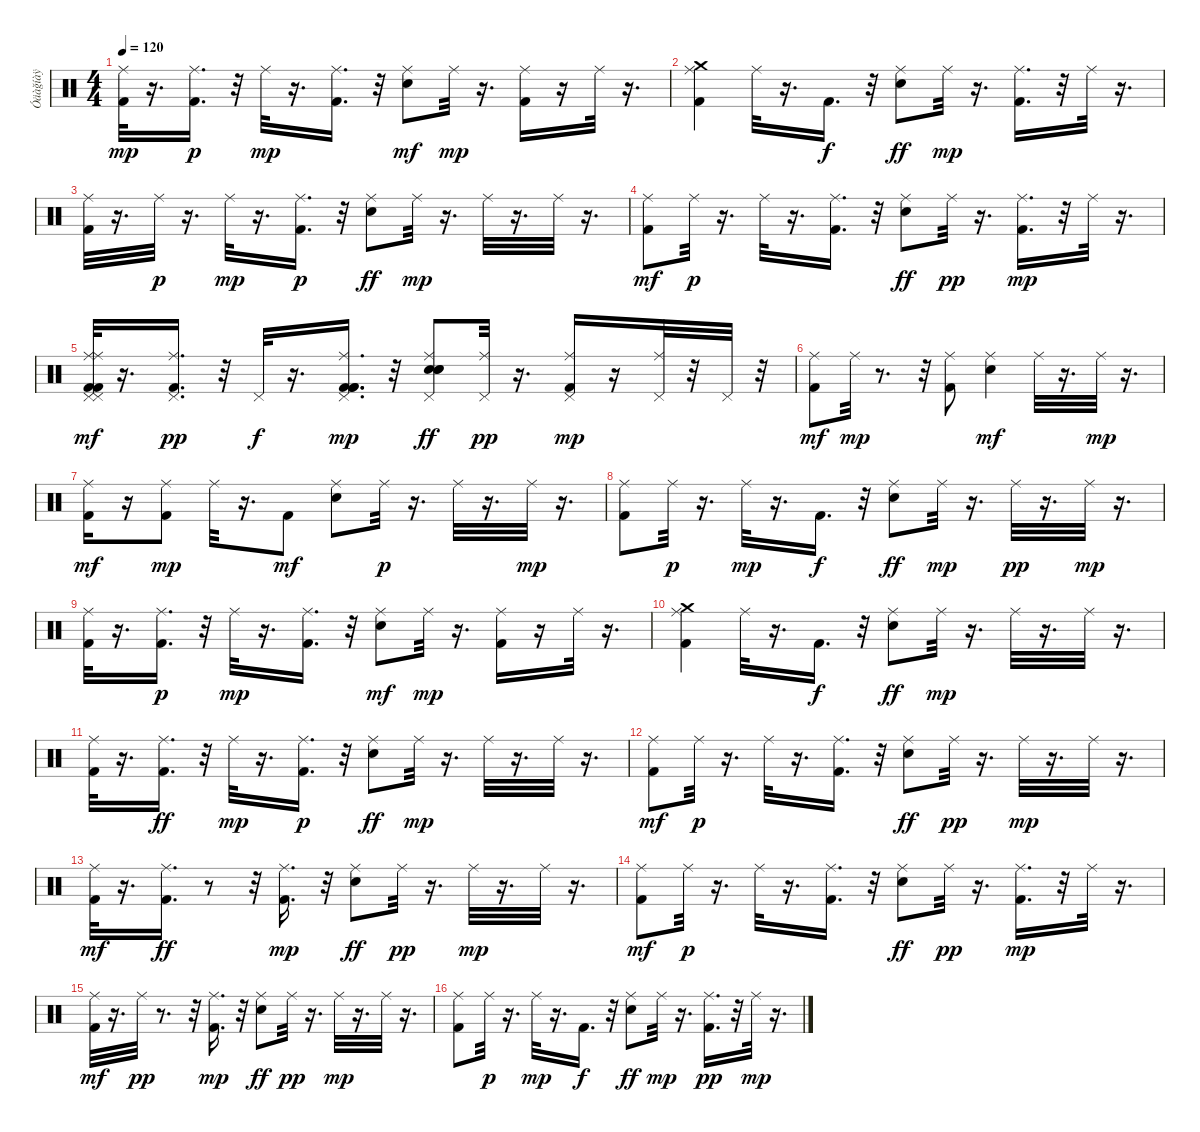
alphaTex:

\track ("Óäàğíàÿ" "Óäàğíàÿ") {instrument percussion}
\staff {score}
\articulation defaults
\ts (4 4)
\tempo 120
\clef neutral
\ks c
("Kick (hit) 2" "Ride (middle)").32{dy mp} r.16{d} ("Kick (hit) 2" "Ride (middle)").16{d dy p} r.32 "Ride (middle)".32{dy mp} r.16{d} ("Kick (hit) 2" "Ride (middle)").16{d} r.32 ("Snare (hit) 2" "Ride (middle)").8{dy mf} "Ride (middle)".32{dy mp} r.16{d} ("Kick (hit) 2" "Ride (middle)").16 r.16 "Ride (middle)".32 r.16{d} |
("Kick (hit) 2" "Crash medium (hit)" "Ride (middle)").4 "Ride (middle)".32 r.16{d} "Kick (hit) 2".16{d dy f} r.32 ("Ride (middle)" "Snare (hit) 2").8{dy ff} "Ride (middle)".32{dy mp} r.16{d} ("Kick (hit) 2" "Ride (middle)").16{d} r.32 "Ride (middle)".32 r.16{d} |
("Kick (hit) 2" "Ride (middle)").32 r.16{d} "Ride (middle)".32{dy p} r.16{d} "Ride (middle)".32{dy mp} r.16{d} ("Ride (middle)" "Kick (hit) 2").16{d dy p} r.32 ("Ride (middle)" "Snare (hit) 2").8{dy ff} "Ride (middle)".32{dy mp} r.16{d} "Ride (middle)".32 r.16{d} "Ride (middle)".32 r.16{d} |
("Ride (middle)" "Kick (hit) 2").8{dy mf} "Ride (middle)".32{dy p} r.16{d} "Ride (middle)".32 r.16{d} ("Ride (middle)" "Kick (hit) 2").16{d} r.32 ("Ride (middle)" "Snare (hit) 2").8{dy ff} "Ride (middle)".32{dy pp} r.16{d} ("Kick (hit) 2" "Ride (middle)").16{d dy mp} r.32 "Ride (middle)".32 r.16{d} |
("Ride (middle)" "Pedal Hi-Hat (hit)" "Kick (hit) 2" "Kick (hit) 2" "Pedal Hi-Hat (hit)" "Ride (middle)").32{dy mf} r.16{d} ("Kick (hit) 2" "Pedal Hi-Hat (hit)" "Ride (middle)").16{d dy pp} r.32 "Pedal Hi-Hat (hit)".32{dy f} r.16{d} ("Kick (hit) 2" "Kick (hit) 2" "Pedal Hi-Hat (hit)" "Ride (middle)" "Kick (hit) 2").16{d dy mp} r.32 ("Snare (hit) 2" "Pedal Hi-Hat (hit)" "Snare (hit) 2" "Ride (middle)" "Snare (hit) 2").8{dy ff} ("Pedal Hi-Hat (hit)" "Ride (middle)").32{dy pp} r.16{d} ("Kick (hit) 2" "Pedal Hi-Hat (hit)" "Ride (middle)").16{dy mp} r.16 ("Pedal Hi-Hat (hit)" "Ride (middle)").32 r.32 "Pedal Hi-Hat (hit)".32 r.32 |
("Ride (middle)" "Kick (hit) 2").8{dy mf} "Ride (middle)".32{dy mp} r.8{d} r.32 ("Kick (hit) 2" "Ride (middle)").8 ("Snare (hit) 2" "Ride (middle)").4{dy mf} "Ride (middle)".32 r.16{d} "Ride (middle)".32{dy mp} r.16{d} |
("Ride (middle)" "Kick (hit) 2").16{dy mf} r.16 ("Kick (hit) 2" "Ride (middle)").8{dy mp} "Ride (middle)".32 r.16{d} "Kick (hit) 2".8{dy mf} ("Ride (middle)" "Snare (hit) 2").8 "Ride (middle)".32{dy p} r.16{d} "Ride (middle)".32 r.16{d} "Ride (middle)".32{dy mp} r.16{d} |
("Kick (hit) 2" "Ride (middle)").8 "Ride (middle)".32{dy p} r.16{d} "Ride (middle)".32{dy mp} r.16{d} "Kick (hit) 2".16{d dy f} r.32 ("Ride (middle)" "Snare (hit) 2").8{dy ff} "Ride (middle)".32{dy mp} r.16{d} "Ride (middle)".32{dy pp} r.16{d} "Ride (middle)".32{dy mp} r.16{d} |
("Kick (hit) 2" "Ride (middle)").32 r.16{d} ("Kick (hit) 2" "Ride (middle)").16{d dy p} r.32 "Ride (middle)".32{dy mp} r.16{d} ("Kick (hit) 2" "Ride (middle)").16{d} r.32 ("Snare (hit) 2" "Ride (middle)").8{dy mf} "Ride (middle)".32{dy mp} r.16{d} ("Kick (hit) 2" "Ride (middle)").16 r.16 "Ride (middle)".32 r.16{d} |
("Kick (hit) 2" "Crash medium (hit)" "Ride (middle)").4 "Ride (middle)".32 r.16{d} "Kick (hit) 2".16{d dy f} r.32 ("Ride (middle)" "Snare (hit) 2").8{dy ff} "Ride (middle)".32{dy mp} r.16{d} "Ride (middle)".32 r.16{d} "Ride (middle)".32 r.16{d} |
("Kick (hit) 2" "Ride (middle)").32 r.16{d} ("Ride (middle)" "Kick (hit) 2").16{d dy ff} r.32 "Ride (middle)".32{dy mp} r.16{d} ("Ride (middle)" "Kick (hit) 2").16{d dy p} r.32 ("Ride (middle)" "Snare (hit) 2").8{dy ff} "Ride (middle)".32{dy mp} r.16{d} "Ride (middle)".32 r.16{d} "Ride (middle)".32 r.16{d} |
("Ride (middle)" "Kick (hit) 2").8{dy mf} "Ride (middle)".32{dy p} r.16{d} "Ride (middle)".32 r.16{d} ("Ride (middle)" "Kick (hit) 2").16{d} r.32 ("Ride (middle)" "Snare (hit) 2").8{dy ff} "Ride (middle)".32{dy pp} r.16{d} "Ride (middle)".32{dy mp} r.16{d} "Ride (middle)".32 r.16{d} |
("Ride (middle)" "Kick (hit) 2").32{dy mf} r.16{d} ("Ride (middle)" "Kick (hit) 2").16{d dy ff} r.8 r.32 ("Ride (middle)" "Kick (hit) 2").16{d dy mp} r.32 ("Ride (middle)" "Snare (hit) 2").8{dy ff} "Ride (middle)".32{dy pp} r.16{d} "Ride (middle)".32{dy mp} r.16{d} "Ride (middle)".32 r.16{d} |
("Ride (middle)" "Kick (hit) 2").8{dy mf} "Ride (middle)".32{dy p} r.16{d} "Ride (middle)".32 r.16{d} ("Ride (middle)" "Kick (hit) 2").16{d} r.32 ("Ride (middle)" "Snare (hit) 2").8{dy ff} "Ride (middle)".32{dy pp} r.16{d} ("Kick (hit) 2" "Ride (middle)").16{d dy mp} r.32 "Ride (middle)".32 r.16{d} |
("Ride (middle)" "Kick (hit) 2").32{dy mf} r.16{d} "Ride (middle)".32{dy pp} r.8{d} r.32 ("Ride (middle)" "Kick (hit) 2").16{d dy mp} r.32 ("Ride (middle)" "Snare (hit) 2").8{dy ff} "Ride (middle)".32{dy pp} r.16{d} "Ride (middle)".32{dy mp} r.16{d} "Ride (middle)".32 r.16{d} |
("Kick (hit) 2" "Ride (middle)").8 "Ride (middle)".32{dy p} r.16{d} "Ride (middle)".32{dy mp} r.16{d} "Kick (hit) 2".16{d dy f} r.32 ("Ride (middle)" "Snare (hit) 2").8{dy ff} "Ride (middle)".32{dy mp} r.16{d} ("Kick (hit) 2" "Ride (middle)").16{d dy pp} r.32 "Ride (middle)".32{dy mp} r.16{d}
